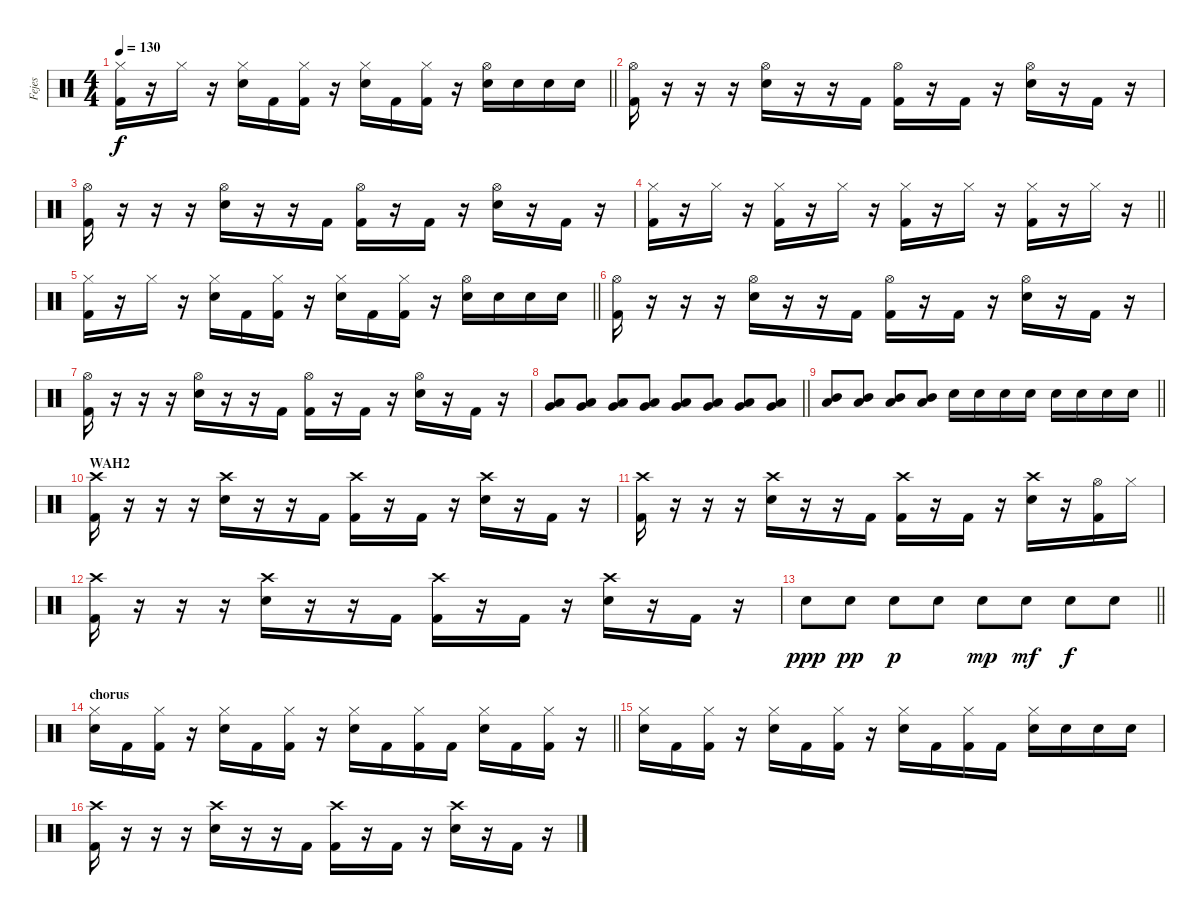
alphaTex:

\track ("Fejes" "Fejes") {instrument percussion}
\staff {score}
\articulation defaults
\ts (4 4)
\tempo 130
\clef neutral
\barLineRight lightlight
\ks c
("Hi-Hat (closed)" "Kick (hit) 2").16{dy f} r.16 "Hi-Hat (closed)".16 r.16 ("Hi-Hat (closed)" "Snare (hit) 2").16 "Kick (hit) 2".16 ("Hi-Hat (closed)" "Kick (hit) 2").16 r.16 ("Hi-Hat (closed)" "Snare (hit) 2").16 "Kick (hit) 2".16 ("Hi-Hat (closed)" "Kick (hit) 2").16 r.16 ("Hi-Hat (open)" "Snare (hit) 2").16 "Snare (hit) 2".16 "Snare (hit) 2".16 "Snare (hit) 2".16 |
("Hi-Hat (open)" "Kick (hit) 2").16 r.16 r.16 r.16 ("Hi-Hat (open)" "Snare (hit) 2").16 r.16 r.16 "Kick (hit) 2".16 ("Hi-Hat (open)" "Kick (hit) 2").16 r.16 "Kick (hit) 2".16 r.16 ("Hi-Hat (open)" "Snare (hit) 2").16 r.16 "Kick (hit) 2".16 r.16 |
("Hi-Hat (open)" "Kick (hit) 2").16 r.16 r.16 r.16 ("Hi-Hat (open)" "Snare (hit) 2").16 r.16 r.16 "Kick (hit) 2".16 ("Hi-Hat (open)" "Kick (hit) 2").16 r.16 "Kick (hit) 2".16 r.16 ("Hi-Hat (open)" "Snare (hit) 2").16 r.16 "Kick (hit) 2".16 r.16 |
\barLineRight lightlight
("Hi-Hat (closed)" "Kick (hit) 2").16 r.16 "Hi-Hat (closed)".16 r.16 ("Hi-Hat (closed)" "Kick (hit) 2").16 r.16 "Hi-Hat (closed)".16 r.16 ("Hi-Hat (closed)" "Kick (hit) 2").16 r.16 "Hi-Hat (closed)".16 r.16 ("Hi-Hat (closed)" "Kick (hit) 2").16 r.16 "Hi-Hat (closed)".16 r.16 |
\barLineRight lightlight
("Hi-Hat (closed)" "Kick (hit) 2").16 r.16 "Hi-Hat (closed)".16 r.16 ("Hi-Hat (closed)" "Snare (hit) 2").16 "Kick (hit) 2".16 ("Hi-Hat (closed)" "Kick (hit) 2").16 r.16 ("Hi-Hat (closed)" "Snare (hit) 2").16 "Kick (hit) 2".16 ("Hi-Hat (closed)" "Kick (hit) 2").16 r.16 ("Hi-Hat (open)" "Snare (hit) 2").16 "Snare (hit) 2".16 "Snare (hit) 2".16 "Snare (hit) 2".16 |
("Hi-Hat (open)" "Kick (hit) 2").16 r.16 r.16 r.16 ("Hi-Hat (open)" "Snare (hit) 2").16 r.16 r.16 "Kick (hit) 2".16 ("Hi-Hat (open)" "Kick (hit) 2").16 r.16 "Kick (hit) 2".16 r.16 ("Hi-Hat (open)" "Snare (hit) 2").16 r.16 "Kick (hit) 2".16 r.16 |
("Hi-Hat (open)" "Kick (hit) 2").16 r.16 r.16 r.16 ("Hi-Hat (open)" "Snare (hit) 2").16 r.16 r.16 "Kick (hit) 2".16 ("Hi-Hat (open)" "Kick (hit) 2").16 r.16 "Kick (hit) 2".16 r.16 ("Hi-Hat (open)" "Snare (hit) 2").16 r.16 "Kick (hit) 2".16 r.16 |
\barLineRight lightlight
("Low Tom (hit)" "Very Low Tom (hit)").8 ("Low Tom (hit)" "Very Low Tom (hit)").8 ("Low Tom (hit)" "Very Low Tom (hit)").8 ("Low Tom (hit)" "Very Low Tom (hit)").8 ("Low Tom (hit)" "Very Low Tom (hit)").8 ("Low Tom (hit)" "Very Low Tom (hit)").8 ("Low Tom (hit)" "Very Low Tom (hit)").8 ("Low Tom (hit)" "Very Low Tom (hit)").8 |
\barLineRight lightlight
("Mid Tom (hit)" "Low Tom (hit)").8 ("Mid Tom (hit)" "Low Tom (hit)").8 ("Mid Tom (hit)" "Low Tom (hit)").8 ("Mid Tom (hit)" "Low Tom (hit)").8 "Snare (hit) 2".16 "Snare (hit) 2".16 "Snare (hit) 2".16 "Snare (hit) 2".16 "Snare (hit) 2".16 "Snare (hit) 2".16 "Snare (hit) 2".16 "Snare (hit) 2".16 |
\section ("" "WAH2")
("Crash high (hit)" "Kick (hit) 2").16 r.16 r.16 r.16 ("Crash high (hit)" "Snare (hit) 2").16 r.16 r.16 "Kick (hit) 2".16 ("Crash high (hit)" "Kick (hit) 2").16 r.16 "Kick (hit) 2".16 r.16 ("Crash high (hit)" "Snare (hit) 2").16 r.16 "Kick (hit) 2".16 r.16 |
("Crash high (hit)" "Kick (hit) 2").16 r.16 r.16 r.16 ("Crash high (hit)" "Snare (hit) 2").16 r.16 r.16 "Kick (hit) 2".16 ("Crash high (hit)" "Kick (hit) 2").16 r.16 "Kick (hit) 2".16 r.16 ("Crash high (hit)" "Snare (hit) 2").16 r.16 ("Hi-Hat (open)" "Kick (hit) 2").16 "Hi-Hat (closed)".16 |
("Crash high (hit)" "Kick (hit) 2").16 r.16 r.16 r.16 ("Crash high (hit)" "Snare (hit) 2").16 r.16 r.16 "Kick (hit) 2".16 ("Crash high (hit)" "Kick (hit) 2").16 r.16 "Kick (hit) 2".16 r.16 ("Crash high (hit)" "Snare (hit) 2").16 r.16 "Kick (hit) 2".16 r.16 |
\barLineRight lightlight "Snare (hit) 2".8{dy ppp} "Snare (hit) 2".8{dy pp} "Snare (hit) 2".8{dy p} "Snare (hit) 2".8 "Snare (hit) 2".8{dy mp} "Snare (hit) 2".8{dy mf} "Snare (hit) 2".8{dy f} "Snare (hit) 2".8
|
\section ("" "chorus")
\barLineRight lightlight
("Hi-Hat (closed)" "Snare (hit) 2").16 "Kick (hit) 2".16 ("Hi-Hat (closed)" "Kick (hit) 2").16 r.16 ("Hi-Hat (closed)" "Snare (hit) 2").16 "Kick (hit) 2".16 ("Hi-Hat (closed)" "Kick (hit) 2").16 r.16 ("Hi-Hat (closed)" "Snare (hit) 2").16 "Kick (hit) 2".16 ("Hi-Hat (closed)" "Kick (hit) 2").16 "Kick (hit) 2".16 ("Hi-Hat (closed)" "Snare (hit) 2").16 "Kick (hit) 2".16 ("Hi-Hat (closed)" "Kick (hit) 2").16 r.16 |
("Hi-Hat (closed)" "Snare (hit) 2").16 "Kick (hit) 2".16 ("Hi-Hat (closed)" "Kick (hit) 2").16 r.16 ("Hi-Hat (closed)" "Snare (hit) 2").16 "Kick (hit) 2".16 ("Hi-Hat (closed)" "Kick (hit) 2").16 r.16 ("Hi-Hat (closed)" "Snare (hit) 2").16 "Kick (hit) 2".16 ("Hi-Hat (closed)" "Kick (hit) 2").16 "Kick (hit) 2".16 ("Hi-Hat (closed)" "Snare (hit) 2").16 "Snare (hit) 2".16 "Snare (hit) 2".16 "Snare (hit) 2".16 |
("Crash high (hit)" "Kick (hit) 2").16 r.16 r.16 r.16 ("Crash high (hit)" "Snare (hit) 2").16 r.16 r.16 "Kick (hit) 2".16 ("Crash high (hit)" "Kick (hit) 2").16 r.16 "Kick (hit) 2".16 r.16 ("Crash high (hit)" "Snare (hit) 2").16 r.16 "Kick (hit) 2".16 r.16
